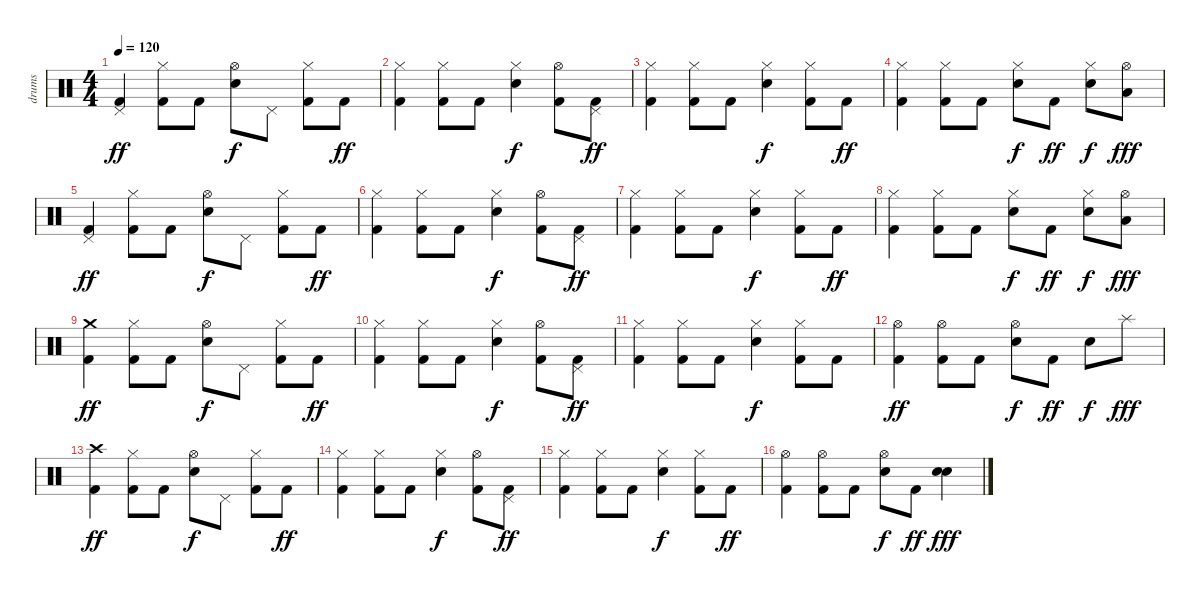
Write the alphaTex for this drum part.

\track ("drums" "drums") {instrument percussion}
\staff {score}
\articulation defaults
\ts (4 4)
\tempo 120
\clef neutral
\ks c
("Pedal Hi-Hat (hit)" "Kick (hit) 2").4{dy ff} ("Hi-Hat (closed)" "Kick (hit) 2").8 "Kick (hit) 2".8 ("Hi-Hat (open)" "Electric Snare (hit)").8{dy f} "Pedal Hi-Hat (hit)".8 ("Hi-Hat (closed)" "Kick (hit) 2").8 "Kick (hit) 2".8{dy ff} |
("Hi-Hat (closed)" "Kick (hit) 2").4 ("Hi-Hat (closed)" "Kick (hit) 2").8 "Kick (hit) 2".8 ("Hi-Hat (closed)" "Electric Snare (hit)").4{dy f} ("Hi-Hat (open)" "Kick (hit) 2").8 ("Pedal Hi-Hat (hit)" "Kick (hit) 2").8{dy ff} |
("Hi-Hat (closed)" "Kick (hit) 2").4 ("Hi-Hat (closed)" "Kick (hit) 2").8 "Kick (hit) 2".8 ("Hi-Hat (closed)" "Electric Snare (hit)").4{dy f} ("Hi-Hat (closed)" "Kick (hit) 2").8 "Kick (hit) 2".8{dy ff} |
("Hi-Hat (closed)" "Kick (hit) 2").4 ("Hi-Hat (closed)" "Kick (hit) 2").8 "Kick (hit) 2".8 ("Hi-Hat (closed)" "Electric Snare (hit)").8{dy f} "Kick (hit) 2".8{dy ff} ("Hi-Hat (closed)" "Electric Snare (hit)").8{dy f} ("Hi-Hat (open)" "Low Floor Tom (hit)").8{dy fff} |
("Pedal Hi-Hat (hit)" "Kick (hit) 2").4{dy ff} ("Hi-Hat (closed)" "Kick (hit) 2").8 "Kick (hit) 2".8 ("Hi-Hat (open)" "Electric Snare (hit)").8{dy f} "Pedal Hi-Hat (hit)".8 ("Hi-Hat (closed)" "Kick (hit) 2").8 "Kick (hit) 2".8{dy ff} |
("Hi-Hat (closed)" "Kick (hit) 2").4 ("Hi-Hat (closed)" "Kick (hit) 2").8 "Kick (hit) 2".8 ("Hi-Hat (closed)" "Electric Snare (hit)").4{dy f} ("Hi-Hat (open)" "Kick (hit) 2").8 ("Pedal Hi-Hat (hit)" "Kick (hit) 2").8{dy ff} |
("Hi-Hat (closed)" "Kick (hit) 2").4 ("Hi-Hat (closed)" "Kick (hit) 2").8 "Kick (hit) 2".8 ("Hi-Hat (closed)" "Electric Snare (hit)").4{dy f} ("Hi-Hat (closed)" "Kick (hit) 2").8 "Kick (hit) 2".8{dy ff} |
("Hi-Hat (closed)" "Kick (hit) 2").4 ("Hi-Hat (closed)" "Kick (hit) 2").8 "Kick (hit) 2".8 ("Hi-Hat (closed)" "Electric Snare (hit)").8{dy f} "Kick (hit) 2".8{dy ff} ("Hi-Hat (closed)" "Electric Snare (hit)").8{dy f} ("Hi-Hat (open)" "Low Floor Tom (hit)").8{dy fff} |
("Crash medium (hit)" "Kick (hit) 2").4{dy ff} ("Hi-Hat (closed)" "Kick (hit) 2").8 "Kick (hit) 2".8 ("Hi-Hat (open)" "Electric Snare (hit)").8{dy f} "Pedal Hi-Hat (hit)".8 ("Hi-Hat (closed)" "Kick (hit) 2").8 "Kick (hit) 2".8{dy ff} |
("Hi-Hat (closed)" "Kick (hit) 2").4 ("Hi-Hat (closed)" "Kick (hit) 2").8 "Kick (hit) 2".8 ("Hi-Hat (closed)" "Electric Snare (hit)").4{dy f} ("Hi-Hat (open)" "Kick (hit) 2").8 ("Pedal Hi-Hat (hit)" "Kick (hit) 2").8{dy ff} |
("Hi-Hat (closed)" "Kick (hit) 2").4 ("Hi-Hat (closed)" "Kick (hit) 2").8 "Kick (hit) 2".8 ("Hi-Hat (closed)" "Electric Snare (hit)").4{dy f} ("Hi-Hat (closed)" "Kick (hit) 2").8 "Kick (hit) 2".8 |
("Hi-Hat (open)" "Kick (hit) 2").4{dy ff} ("Hi-Hat (open)" "Kick (hit) 2").8 "Kick (hit) 2".8 ("Hi-Hat (open)" "Electric Snare (hit)").8{dy f} "Kick (hit) 2".8{dy ff} "Electric Snare (hit)".8{dy f} "Splash (hit)".8{dy fff} |
("Crash high (hit)" "Kick (hit) 2").4{dy ff} ("Hi-Hat (closed)" "Kick (hit) 2").8 "Kick (hit) 2".8 ("Hi-Hat (open)" "Electric Snare (hit)").8{dy f} "Pedal Hi-Hat (hit)".8 ("Hi-Hat (closed)" "Kick (hit) 2").8 "Kick (hit) 2".8{dy ff} |
("Hi-Hat (closed)" "Kick (hit) 2").4 ("Hi-Hat (closed)" "Kick (hit) 2").8 "Kick (hit) 2".8 ("Hi-Hat (closed)" "Electric Snare (hit)").4{dy f} ("Hi-Hat (open)" "Kick (hit) 2").8 ("Pedal Hi-Hat (hit)" "Kick (hit) 2").8{dy ff} |
("Hi-Hat (closed)" "Kick (hit) 2").4 ("Hi-Hat (closed)" "Kick (hit) 2").8 "Kick (hit) 2".8 ("Hi-Hat (closed)" "Electric Snare (hit)").4{dy f} ("Hi-Hat (closed)" "Kick (hit) 2").8 "Kick (hit) 2".8{dy ff} |
("Hi-Hat (open)" "Kick (hit) 2").4 ("Hi-Hat (open)" "Kick (hit) 2").8 "Kick (hit) 2".8 ("Hi-Hat (open)" "Electric Snare (hit)").8{dy f} "Kick (hit) 2".8{dy ff} ("Electric Snare (hit)" "Electric Snare (hit)").4{dy fff}
